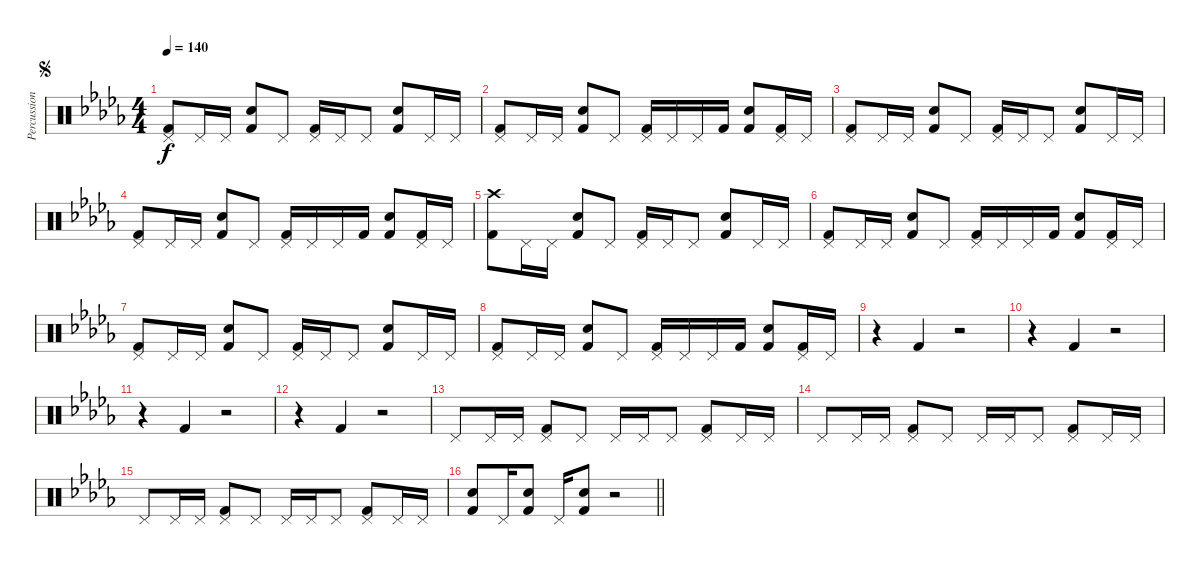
\track ("Percussion" "Percussion") {instrument percussion}
\staff {score}
\articulation defaults
\ts (4 4)
\section ("" "")
\jump segno
\tempo 140
\clef neutral
\ks db
("Pedal Hi-Hat (hit)" "Kick (hit) 2").8{dy f volume 13} "Pedal Hi-Hat (hit)".16 "Pedal Hi-Hat (hit)".16 ("Snare (hit) 2" "Kick (hit) 2").8 "Pedal Hi-Hat (hit)".8 ("Pedal Hi-Hat (hit)" "Kick (hit) 2").16 "Pedal Hi-Hat (hit)".16 "Pedal Hi-Hat (hit)".8 ("Snare (hit) 2" "Kick (hit) 2").8 "Pedal Hi-Hat (hit)".16 "Pedal Hi-Hat (hit)".16 |
("Pedal Hi-Hat (hit)" "Kick (hit) 2").8 "Pedal Hi-Hat (hit)".16 "Pedal Hi-Hat (hit)".16 ("Snare (hit) 2" "Kick (hit) 2").8 "Pedal Hi-Hat (hit)".8 ("Pedal Hi-Hat (hit)" "Kick (hit) 2").16 "Pedal Hi-Hat (hit)".16 "Pedal Hi-Hat (hit)".16 "Kick (hit) 2".16 ("Snare (hit) 2" "Kick (hit) 2").8 ("Pedal Hi-Hat (hit)" "Kick (hit) 2").16 "Pedal Hi-Hat (hit)".16 |
("Pedal Hi-Hat (hit)" "Kick (hit) 2").8 "Pedal Hi-Hat (hit)".16 "Pedal Hi-Hat (hit)".16 ("Snare (hit) 2" "Kick (hit) 2").8 "Pedal Hi-Hat (hit)".8 ("Pedal Hi-Hat (hit)" "Kick (hit) 2").16 "Pedal Hi-Hat (hit)".16 "Pedal Hi-Hat (hit)".8 ("Snare (hit) 2" "Kick (hit) 2").8 "Pedal Hi-Hat (hit)".16 "Pedal Hi-Hat (hit)".16 |
("Pedal Hi-Hat (hit)" "Kick (hit) 2").8 "Pedal Hi-Hat (hit)".16 "Pedal Hi-Hat (hit)".16 ("Snare (hit) 2" "Kick (hit) 2").8 "Pedal Hi-Hat (hit)".8 ("Pedal Hi-Hat (hit)" "Kick (hit) 2").16 "Pedal Hi-Hat (hit)".16 "Pedal Hi-Hat (hit)".16 "Kick (hit) 2".16 ("Snare (hit) 2" "Kick (hit) 2").8 ("Pedal Hi-Hat (hit)" "Kick (hit) 2").16 "Pedal Hi-Hat (hit)".16 |
("Crash high (hit)" "Kick (hit) 2").8 "Pedal Hi-Hat (hit)".16 "Pedal Hi-Hat (hit)".16 ("Snare (hit) 2" "Kick (hit) 2").8 "Pedal Hi-Hat (hit)".8 ("Pedal Hi-Hat (hit)" "Kick (hit) 2").16 "Pedal Hi-Hat (hit)".16 "Pedal Hi-Hat (hit)".8 ("Snare (hit) 2" "Kick (hit) 2").8 "Pedal Hi-Hat (hit)".16 "Pedal Hi-Hat (hit)".16 |
("Pedal Hi-Hat (hit)" "Kick (hit) 2").8 "Pedal Hi-Hat (hit)".16 "Pedal Hi-Hat (hit)".16 ("Snare (hit) 2" "Kick (hit) 2").8 "Pedal Hi-Hat (hit)".8 ("Pedal Hi-Hat (hit)" "Kick (hit) 2").16 "Pedal Hi-Hat (hit)".16 "Pedal Hi-Hat (hit)".16 "Kick (hit) 2".16 ("Snare (hit) 2" "Kick (hit) 2").8 ("Pedal Hi-Hat (hit)" "Kick (hit) 2").16 "Pedal Hi-Hat (hit)".16 |
("Pedal Hi-Hat (hit)" "Kick (hit) 2").8 "Pedal Hi-Hat (hit)".16 "Pedal Hi-Hat (hit)".16 ("Snare (hit) 2" "Kick (hit) 2").8 "Pedal Hi-Hat (hit)".8 ("Pedal Hi-Hat (hit)" "Kick (hit) 2").16 "Pedal Hi-Hat (hit)".16 "Pedal Hi-Hat (hit)".8 ("Snare (hit) 2" "Kick (hit) 2").8 "Pedal Hi-Hat (hit)".16 "Pedal Hi-Hat (hit)".16 |
("Pedal Hi-Hat (hit)" "Kick (hit) 2").8 "Pedal Hi-Hat (hit)".16 "Pedal Hi-Hat (hit)".16 ("Snare (hit) 2" "Kick (hit) 2").8 "Pedal Hi-Hat (hit)".8 ("Pedal Hi-Hat (hit)" "Kick (hit) 2").16 "Pedal Hi-Hat (hit)".16 "Pedal Hi-Hat (hit)".16 "Kick (hit) 2".16 ("Snare (hit) 2" "Kick (hit) 2").8 ("Pedal Hi-Hat (hit)" "Kick (hit) 2").16 "Pedal Hi-Hat (hit)".16 |
r.4 "Kick (hit) 2".4 r.2 |
r.4 "Kick (hit) 2".4 r.2 |
r.4 "Kick (hit) 2".4 r.2 |
r.4 "Kick (hit) 2".4 r.2 |
"Pedal Hi-Hat (hit)".8 "Pedal Hi-Hat (hit)".16 "Pedal Hi-Hat (hit)".16 ("Pedal Hi-Hat (hit)" "Kick (hit) 2").8 "Pedal Hi-Hat (hit)".8 "Pedal Hi-Hat (hit)".16 "Pedal Hi-Hat (hit)".16 "Pedal Hi-Hat (hit)".8 ("Pedal Hi-Hat (hit)" "Kick (hit) 2").8 "Pedal Hi-Hat (hit)".16 "Pedal Hi-Hat (hit)".16 |
"Pedal Hi-Hat (hit)".8 "Pedal Hi-Hat (hit)".16 "Pedal Hi-Hat (hit)".16 ("Pedal Hi-Hat (hit)" "Kick (hit) 2").8 "Pedal Hi-Hat (hit)".8 "Pedal Hi-Hat (hit)".16 "Pedal Hi-Hat (hit)".16 "Pedal Hi-Hat (hit)".8 ("Pedal Hi-Hat (hit)" "Kick (hit) 2").8 "Pedal Hi-Hat (hit)".16 "Pedal Hi-Hat (hit)".16 |
"Pedal Hi-Hat (hit)".8 "Pedal Hi-Hat (hit)".16 "Pedal Hi-Hat (hit)".16 ("Pedal Hi-Hat (hit)" "Kick (hit) 2").8 "Pedal Hi-Hat (hit)".8 "Pedal Hi-Hat (hit)".16 "Pedal Hi-Hat (hit)".16 "Pedal Hi-Hat (hit)".8 ("Pedal Hi-Hat (hit)" "Kick (hit) 2").8 "Pedal Hi-Hat (hit)".16 "Pedal Hi-Hat (hit)".16 |
\barLineRight lightlight
("Snare (hit) 2" "Kick (hit) 2").8 "Pedal Hi-Hat (hit)".16 ("Snare (hit) 2" "Kick (hit) 2").8 "Pedal Hi-Hat (hit)".16 ("Snare (hit) 2" "Kick (hit) 2").8 r.2
